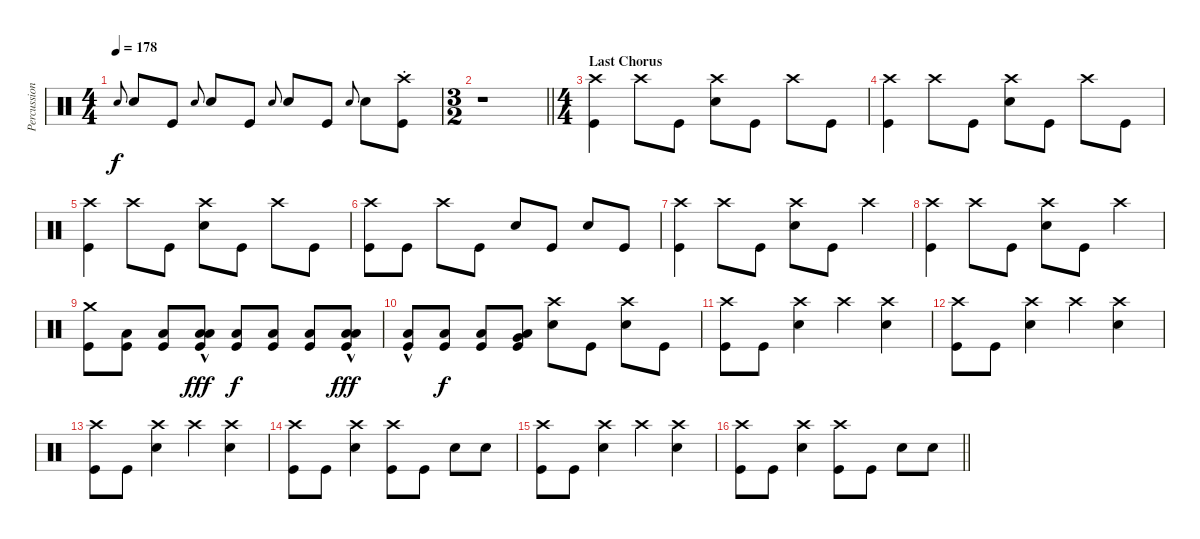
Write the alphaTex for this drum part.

\track ("Percussion" "Percussion") {instrument percussion}
\staff {score}
\articulation defaults
\ts (4 4)
\tempo 178
\clef neutral
\ks c "Snare (hit) 2".8{gr onbeat dy f} "Snare (hit) 2".8 "Kick (hit)".8 "Snare (hit) 2".8{gr onbeat} "Snare (hit) 2".8 "Kick (hit)".8 "Snare (hit) 2".8{gr onbeat} "Snare (hit) 2".8 "Kick (hit)".8 "Snare (hit) 2".8{gr onbeat} "Snare (hit) 2".8
("Crash high (hit)"{st} "Kick (hit)").8 |
\ts (3 2)
\barLineRight lightlight
r.1 |
\ts (4 4)
\section ("" "Last Chorus")
("Crash high (hit)" "Kick (hit)").4 "Crash high (hit)".8 "Kick (hit)".8 ("Crash high (hit)" "Snare (hit) 2").8 "Kick (hit)".8 "Crash high (hit)".8 "Kick (hit)".8 |
("Crash high (hit)" "Kick (hit)").4 "Crash high (hit)".8 "Kick (hit)".8 ("Crash high (hit)" "Snare (hit) 2").8 "Kick (hit)".8 "Crash high (hit)".8 "Kick (hit)".8 |
("Crash high (hit)" "Kick (hit)").4 "Crash high (hit)".8 "Kick (hit)".8 ("Crash high (hit)" "Snare (hit) 2").8 "Kick (hit)".8 "Crash high (hit)".8 "Kick (hit)".8 |
("Crash high (hit)" "Kick (hit)").8 "Kick (hit)".8 "Crash high (hit)".8 "Kick (hit)".8 "Snare (hit) 2".8 "Kick (hit)".8 "Snare (hit) 2".8 "Kick (hit)".8 |
("Crash high (hit)" "Kick (hit)").4 "Crash high (hit)".8 "Kick (hit)".8 ("Crash high (hit)" "Snare (hit) 2").8 "Kick (hit)".8 "Crash high (hit)".4 |
("Crash high (hit)" "Kick (hit)").4 "Crash high (hit)".8 "Kick (hit)".8 ("Crash high (hit)" "Snare (hit) 2").8 "Kick (hit)".8 "Crash high (hit)".4 |
("Crash medium (hit)" "Kick (hit)").8 ("Low Floor Tom (hit)" "Kick (hit)").8 ("Low Floor Tom (hit)" "Kick (hit)").8 ("Low Tom (hit)"{hac} "Low Floor Tom (hit)"{hac} "Kick (hit)").8{dy fff} ("Low Floor Tom (hit)" "Kick (hit)").8{dy f} ("Low Floor Tom (hit)" "Kick (hit)").8 ("Low Floor Tom (hit)" "Kick (hit)").8 ("Low Tom (hit)"{hac} "Low Floor Tom (hit)"{hac} "Kick (hit)").8{dy fff} |
("Low Floor Tom (hit)"{hac} "Kick (hit)").8 ("Low Floor Tom (hit)" "Kick (hit)").8{dy f} ("Low Floor Tom (hit)" "Kick (hit)").8 ("Very Low Tom (hit)" "Low Floor Tom (hit)" "Kick (hit)").8 ("Crash high (hit)" "Snare (hit) 2").8 "Kick (hit)".8 ("Crash high (hit)" "Snare (hit) 2").8 "Kick (hit)".8 |
("Crash high (hit)" "Kick (hit)").8 "Kick (hit)".8 ("Crash high (hit)" "Snare (hit) 2").4 "Crash high (hit)".4 ("Crash high (hit)" "Snare (hit) 2").4 |
("Crash high (hit)" "Kick (hit)").8 "Kick (hit)".8 ("Crash high (hit)" "Snare (hit) 2").4 "Crash high (hit)".4 ("Crash high (hit)" "Snare (hit) 2").4 |
("Crash high (hit)" "Kick (hit)").8 "Kick (hit)".8 ("Crash high (hit)" "Snare (hit) 2").4 "Crash high (hit)".4 ("Crash high (hit)" "Snare (hit) 2").4 |
("Crash high (hit)" "Kick (hit)").8 "Kick (hit)".8 ("Crash high (hit)" "Snare (hit) 2").4 ("Crash high (hit)" "Kick (hit)").8 "Kick (hit)".8 "Snare (hit) 2".8 "Snare (hit) 2".8 |
("Crash high (hit)" "Kick (hit)").8 "Kick (hit)".8 ("Crash high (hit)" "Snare (hit) 2").4 "Crash high (hit)".4 ("Crash high (hit)" "Snare (hit) 2").4 |
\barLineRight lightlight
("Crash high (hit)" "Kick (hit)").8 "Kick (hit)".8 ("Crash high (hit)" "Snare (hit) 2").4 ("Crash high (hit)" "Kick (hit)").8 "Kick (hit)".8 "Snare (hit) 2".8 "Snare (hit) 2".8
